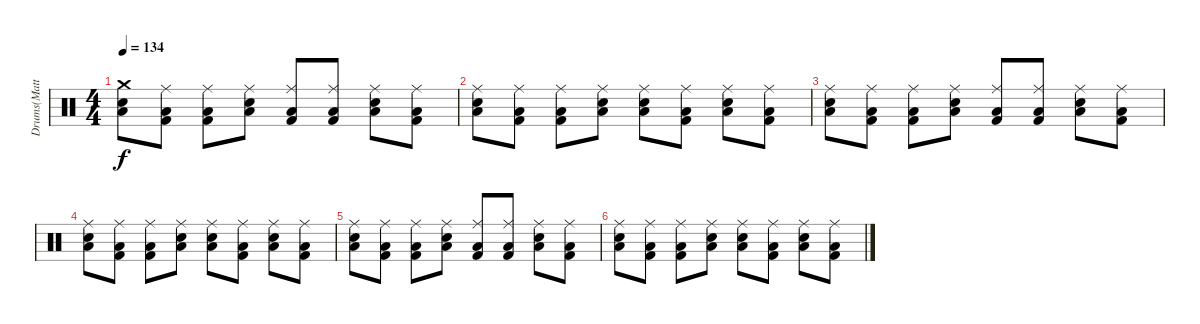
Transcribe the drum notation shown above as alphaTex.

\track ("Drums(Matthias)" "Drums(Matt") {instrument percussion}
\staff {score}
\articulation defaults
\ts (4 4)
\tempo 134
\clef neutral
\ks c
("Crash medium (hit)" "Low Tom (hit)" "Snare (hit) 2").8{dy f volume 10} ("Ride (middle)" "Low Tom (hit)" "Kick (hit) 2").8 ("Ride (middle)" "Low Tom (hit)" "Kick (hit) 2").8 ("Ride (middle)" "Low Tom (hit)" "Snare (hit) 2").8 ("Ride (middle)" "Low Tom (hit)" "Kick (hit) 2").8 ("Ride (middle)" "Low Tom (hit)" "Kick (hit) 2").8 ("Ride (middle)" "Low Tom (hit)" "Snare (hit) 2").8 ("Ride (middle)" "Low Tom (hit)" "Kick (hit) 2").8 |
("Ride (middle)" "Low Tom (hit)" "Snare (hit) 2").8 ("Ride (middle)" "Low Tom (hit)" "Kick (hit) 2").8 ("Ride (middle)" "Low Tom (hit)" "Kick (hit) 2").8 ("Ride (middle)" "Low Tom (hit)" "Snare (hit) 2").8 ("Ride (middle)" "Low Tom (hit)" "Snare (hit) 2").8 ("Ride (middle)" "Low Tom (hit)" "Kick (hit) 2").8 ("Ride (middle)" "Low Tom (hit)" "Snare (hit) 2").8 ("Ride (middle)" "Low Tom (hit)" "Kick (hit) 2").8 |
("Ride (middle)" "Low Tom (hit)" "Snare (hit) 2").8{volume 10} ("Ride (middle)" "Low Tom (hit)" "Kick (hit) 2").8 ("Ride (middle)" "Low Tom (hit)" "Kick (hit) 2").8 ("Ride (middle)" "Low Tom (hit)" "Snare (hit) 2").8 ("Ride (middle)" "Low Tom (hit)" "Kick (hit) 2").8 ("Ride (middle)" "Low Tom (hit)" "Kick (hit) 2").8 ("Ride (middle)" "Low Tom (hit)" "Snare (hit) 2").8 ("Ride (middle)" "Low Tom (hit)" "Kick (hit) 2").8 |
("Ride (middle)" "Low Tom (hit)" "Snare (hit) 2").8 ("Ride (middle)" "Low Tom (hit)" "Kick (hit) 2").8 ("Ride (middle)" "Low Tom (hit)" "Kick (hit) 2").8 ("Ride (middle)" "Low Tom (hit)" "Snare (hit) 2").8 ("Ride (middle)" "Low Tom (hit)" "Snare (hit) 2").8 ("Ride (middle)" "Low Tom (hit)" "Kick (hit) 2").8 ("Ride (middle)" "Low Tom (hit)" "Snare (hit) 2").8 ("Ride (middle)" "Low Tom (hit)" "Kick (hit) 2").8 |
("Ride (middle)" "Low Tom (hit)" "Snare (hit) 2").8{volume 10} ("Ride (middle)" "Low Tom (hit)" "Kick (hit) 2").8 ("Ride (middle)" "Low Tom (hit)" "Kick (hit) 2").8 ("Ride (middle)" "Low Tom (hit)" "Snare (hit) 2").8 ("Ride (middle)" "Low Tom (hit)" "Kick (hit) 2").8 ("Ride (middle)" "Low Tom (hit)" "Kick (hit) 2").8 ("Ride (middle)" "Low Tom (hit)" "Snare (hit) 2").8 ("Ride (middle)" "Low Tom (hit)" "Kick (hit) 2").8 |
("Ride (middle)" "Low Tom (hit)" "Snare (hit) 2").8 ("Ride (middle)" "Low Tom (hit)" "Kick (hit) 2").8 ("Ride (middle)" "Low Tom (hit)" "Kick (hit) 2").8 ("Ride (middle)" "Low Tom (hit)" "Snare (hit) 2").8 ("Ride (middle)" "Low Tom (hit)" "Snare (hit) 2").8 ("Ride (middle)" "Low Tom (hit)" "Kick (hit) 2").8 ("Ride (middle)" "Low Tom (hit)" "Snare (hit) 2").8 ("Ride (middle)" "Low Tom (hit)" "Kick (hit) 2").8
